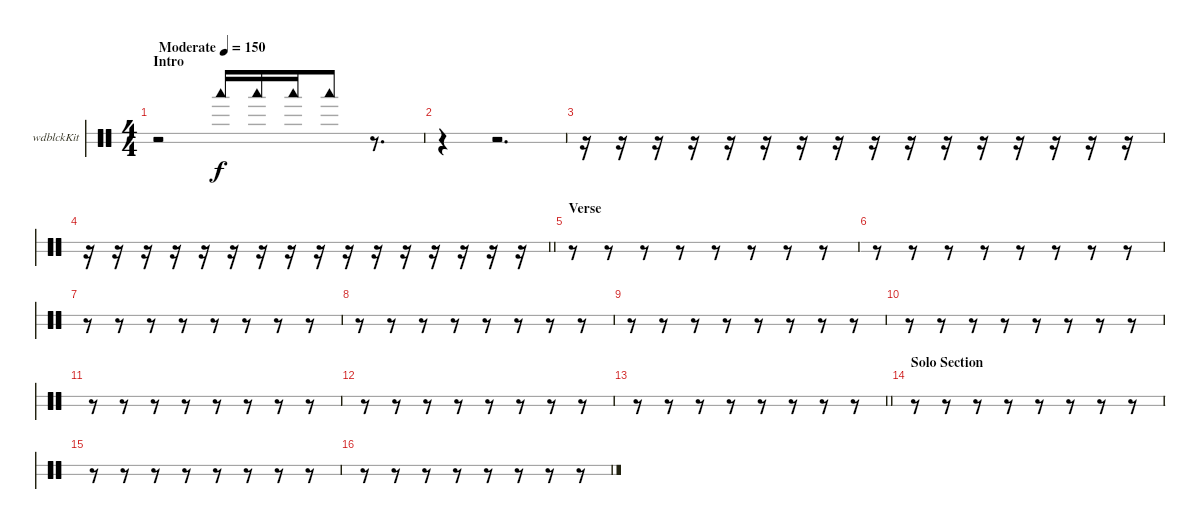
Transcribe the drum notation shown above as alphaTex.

\bracketExtendMode groupsimilarinstruments
\firstSystemTrackNameOrientation horizontal
\otherSystemsTrackNameOrientation horizontal
\track ("Woodblock" "wdblckKit") {instrument percussion}
\staff {score 2}
\articulation defaults
\ts (4 4)
\beaming (8 2 2 2 2)
\section ("" "Intro")
\tempo (150 "Moderate")
\clef neutral
\ks c
r.2{dy f beam Up} "Woodblock low (hit)".16{beam Up} "Woodblock low (hit)".16{beam Up} "Woodblock low (hit)".16{beam Up} "Woodblock low (hit)".8{beam Up} r.8{d beam Up} |
r.4{beam Down} r.2{d beam Up} |
r.16{beam Down} r.16{beam Down} r.16{beam Down} r.16{beam Down} r.16{beam Down} r.16{beam Down} r.16{beam Down} r.16{beam Down} r.16{beam Down} r.16{beam Down} r.16{beam Down} r.16{beam Down} r.16{beam Down} r.16{beam Down} r.16{beam Down} r.16{beam Down} |
\barLineRight lightlight
r.16{beam Down} r.16{beam Down} r.16{beam Down} r.16{beam Down} r.16{beam Down} r.16{beam Down} r.16{beam Down} r.16{beam Down} r.16{beam Down} r.16{beam Down} r.16{beam Down} r.16{beam Down} r.16{beam Down} r.16{beam Down} r.16{beam Down} r.16{beam Down} |
\section ("" "Verse")
r.8{beam Down} r.8{beam Down} r.8{beam Down} r.8{beam Down} r.8{beam Down} r.8{beam Down} r.8{beam Down} r.8{beam Down} |
r.8{beam Down} r.8{beam Down} r.8{beam Down} r.8{beam Down} r.8{beam Down} r.8{beam Down} r.8{beam Down} r.8{beam Down} |
r.8{beam Down} r.8{beam Down} r.8{beam Down} r.8{beam Down} r.8{beam Down} r.8{beam Down} r.8{beam Down} r.8{beam Down} |
r.8{beam Down} r.8{beam Down} r.8{beam Down} r.8{beam Down} r.8{beam Down} r.8{beam Down} r.8{beam Down} r.8{beam Down} |
r.8{beam Down} r.8{beam Down} r.8{beam Down} r.8{beam Down} r.8{beam Down} r.8{beam Down} r.8{beam Down} r.8{beam Down} |
r.8{beam Down} r.8{beam Down} r.8{beam Down} r.8{beam Down} r.8{beam Down} r.8{beam Down} r.8{beam Down} r.8{beam Down} |
r.8{beam Down} r.8{beam Down} r.8{beam Down} r.8{beam Down} r.8{beam Down} r.8{beam Down} r.8{beam Down} r.8{beam Down} |
r.8{beam Down} r.8{beam Down} r.8{beam Down} r.8{beam Down} r.8{beam Down} r.8{beam Down} r.8{beam Down} r.8{beam Down} |
\barLineRight lightlight
r.8{beam Down} r.8{beam Down} r.8{beam Down} r.8{beam Down} r.8{beam Down} r.8{beam Down} r.8{beam Down} r.8{beam Down} |
\section ("" "Solo Section")
r.8{beam Down} r.8{beam Down} r.8{beam Down} r.8{beam Down} r.8{beam Down} r.8{beam Down} r.8{beam Down} r.8{beam Down} |
r.8{beam Down} r.8{beam Down} r.8{beam Down} r.8{beam Down} r.8{beam Down} r.8{beam Down} r.8{beam Down} r.8{beam Down} |
r.8{beam Down} r.8{beam Down} r.8{beam Down} r.8{beam Down} r.8{beam Down} r.8{beam Down} r.8{beam Down} r.8{beam Down}
